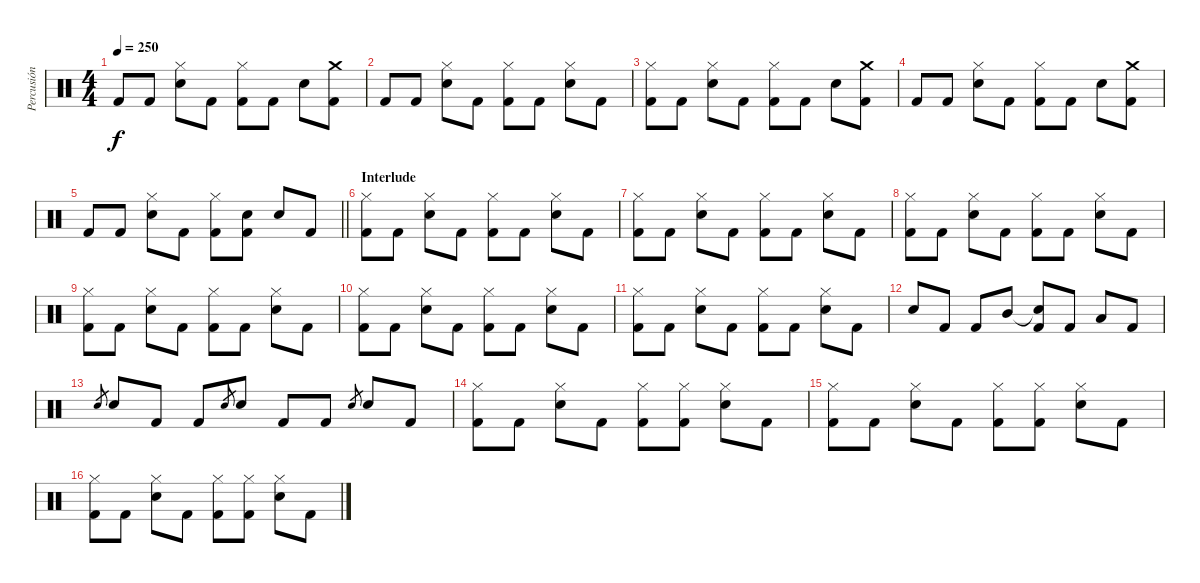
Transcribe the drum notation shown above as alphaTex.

\track ("Percusión" "Percusión") {instrument percussion}
\staff {score}
\articulation defaults
\ts (4 4)
\tempo 250
\clef neutral
\ks c "Kick (hit) 2".8{dy f} "Kick (hit) 2".8
("Electric Snare (hit)" "Hi-Hat (closed)").8 "Kick (hit) 2".8 ("Hi-Hat (closed)" "Kick (hit) 2").8 "Kick (hit) 2".8 "Electric Snare (hit)".8 ("Crash medium (hit)" "Kick (hit) 2").8 |
"Kick (hit) 2".8 "Kick (hit) 2".8 ("Electric Snare (hit)" "Hi-Hat (closed)").8 "Kick (hit) 2".8 ("Hi-Hat (closed)" "Kick (hit) 2").8 "Kick (hit) 2".8 ("Electric Snare (hit)" "Hi-Hat (closed)").8 "Kick (hit) 2".8 |
("Hi-Hat (closed)" "Kick (hit) 2").8 "Kick (hit) 2".8 ("Electric Snare (hit)" "Hi-Hat (closed)").8 "Kick (hit) 2".8 ("Hi-Hat (closed)" "Kick (hit) 2").8 "Kick (hit) 2".8 "Electric Snare (hit)".8 ("Crash medium (hit)" "Kick (hit) 2").8 |
"Kick (hit) 2".8 "Kick (hit) 2".8 ("Electric Snare (hit)" "Hi-Hat (closed)").8 "Kick (hit) 2".8 ("Hi-Hat (closed)" "Kick (hit) 2").8 "Kick (hit) 2".8 "Electric Snare (hit)".8 ("Crash medium (hit)" "Kick (hit) 2").8 |
\barLineRight lightlight "Kick (hit) 2".8 "Kick (hit) 2".8
("Electric Snare (hit)" "Hi-Hat (closed)").8 "Kick (hit) 2".8 ("Hi-Hat (closed)" "Kick (hit) 2").8 ("Electric Snare (hit)" "Kick (hit) 2").8 "Electric Snare (hit)".8 "Kick (hit) 2".8 |
\section ("" "Interlude")
("Hi-Hat (closed)" "Kick (hit) 2").8 "Kick (hit) 2".8 ("Electric Snare (hit)" "Hi-Hat (closed)").8 "Kick (hit) 2".8 ("Hi-Hat (closed)" "Kick (hit) 2").8 "Kick (hit) 2".8 ("Electric Snare (hit)" "Hi-Hat (closed)").8 "Kick (hit) 2".8 |
("Hi-Hat (closed)" "Kick (hit) 2").8 "Kick (hit) 2".8 ("Electric Snare (hit)" "Hi-Hat (closed)").8 "Kick (hit) 2".8 ("Hi-Hat (closed)" "Kick (hit) 2").8 "Kick (hit) 2".8 ("Electric Snare (hit)" "Hi-Hat (closed)").8 "Kick (hit) 2".8 |
("Hi-Hat (closed)" "Kick (hit) 2").8 "Kick (hit) 2".8 ("Electric Snare (hit)" "Hi-Hat (closed)").8 "Kick (hit) 2".8 ("Hi-Hat (closed)" "Kick (hit) 2").8 "Kick (hit) 2".8 ("Electric Snare (hit)" "Hi-Hat (closed)").8 "Kick (hit) 2".8 |
("Hi-Hat (closed)" "Kick (hit) 2").8 "Kick (hit) 2".8 ("Electric Snare (hit)" "Hi-Hat (closed)").8 "Kick (hit) 2".8 ("Hi-Hat (closed)" "Kick (hit) 2").8 "Kick (hit) 2".8 ("Electric Snare (hit)" "Hi-Hat (closed)").8 "Kick (hit) 2".8 |
("Hi-Hat (closed)" "Kick (hit) 2").8 "Kick (hit) 2".8 ("Electric Snare (hit)" "Hi-Hat (closed)").8 "Kick (hit) 2".8 ("Hi-Hat (closed)" "Kick (hit) 2").8 "Kick (hit) 2".8 ("Electric Snare (hit)" "Hi-Hat (closed)").8 "Kick (hit) 2".8 |
("Hi-Hat (closed)" "Kick (hit) 2").8 "Kick (hit) 2".8 ("Electric Snare (hit)" "Hi-Hat (closed)").8 "Kick (hit) 2".8 ("Hi-Hat (closed)" "Kick (hit) 2").8 "Kick (hit) 2".8 ("Electric Snare (hit)" "Hi-Hat (closed)").8 "Kick (hit) 2".8 |
"Electric Snare (hit)".8 "Kick (hit) 2".8 "Kick (hit) 2".8 "Mid Tom (hit)".8 ("Snare (hit)"{t} "Kick (hit) 2").8 "Kick (hit) 2".8 "Low Tom (hit)".8 "Kick (hit) 2".8 |
"Electric Snare (hit)".8{gr} "Electric Snare (hit)".8 "Kick (hit) 2".8 "Kick (hit) 2".8 "Electric Snare (hit)".8{gr} "Electric Snare (hit)".8 "Kick (hit) 2".8 "Kick (hit) 2".8 "Electric Snare (hit)"{h}.8{gr} "Electric Snare (hit)".8 "Kick (hit) 2".8 |
("Hi-Hat (closed)" "Kick (hit) 2").8 "Kick (hit) 2".8 ("Electric Snare (hit)" "Hi-Hat (closed)").8 "Kick (hit) 2".8 ("Hi-Hat (closed)" "Kick (hit) 2").8 ("Hi-Hat (closed)" "Kick (hit) 2").8 ("Electric Snare (hit)" "Hi-Hat (closed)").8 "Kick (hit) 2".8 |
("Hi-Hat (closed)" "Kick (hit) 2").8 "Kick (hit) 2".8 ("Electric Snare (hit)" "Hi-Hat (closed)").8 "Kick (hit) 2".8 ("Hi-Hat (closed)" "Kick (hit) 2").8 ("Hi-Hat (closed)" "Kick (hit) 2").8 ("Electric Snare (hit)" "Hi-Hat (closed)").8 "Kick (hit) 2".8 |
("Hi-Hat (closed)" "Kick (hit) 2").8 "Kick (hit) 2".8 ("Electric Snare (hit)" "Hi-Hat (closed)").8 "Kick (hit) 2".8 ("Hi-Hat (closed)" "Kick (hit) 2").8 ("Hi-Hat (closed)" "Kick (hit) 2").8 ("Electric Snare (hit)" "Hi-Hat (closed)").8 "Kick (hit) 2".8
